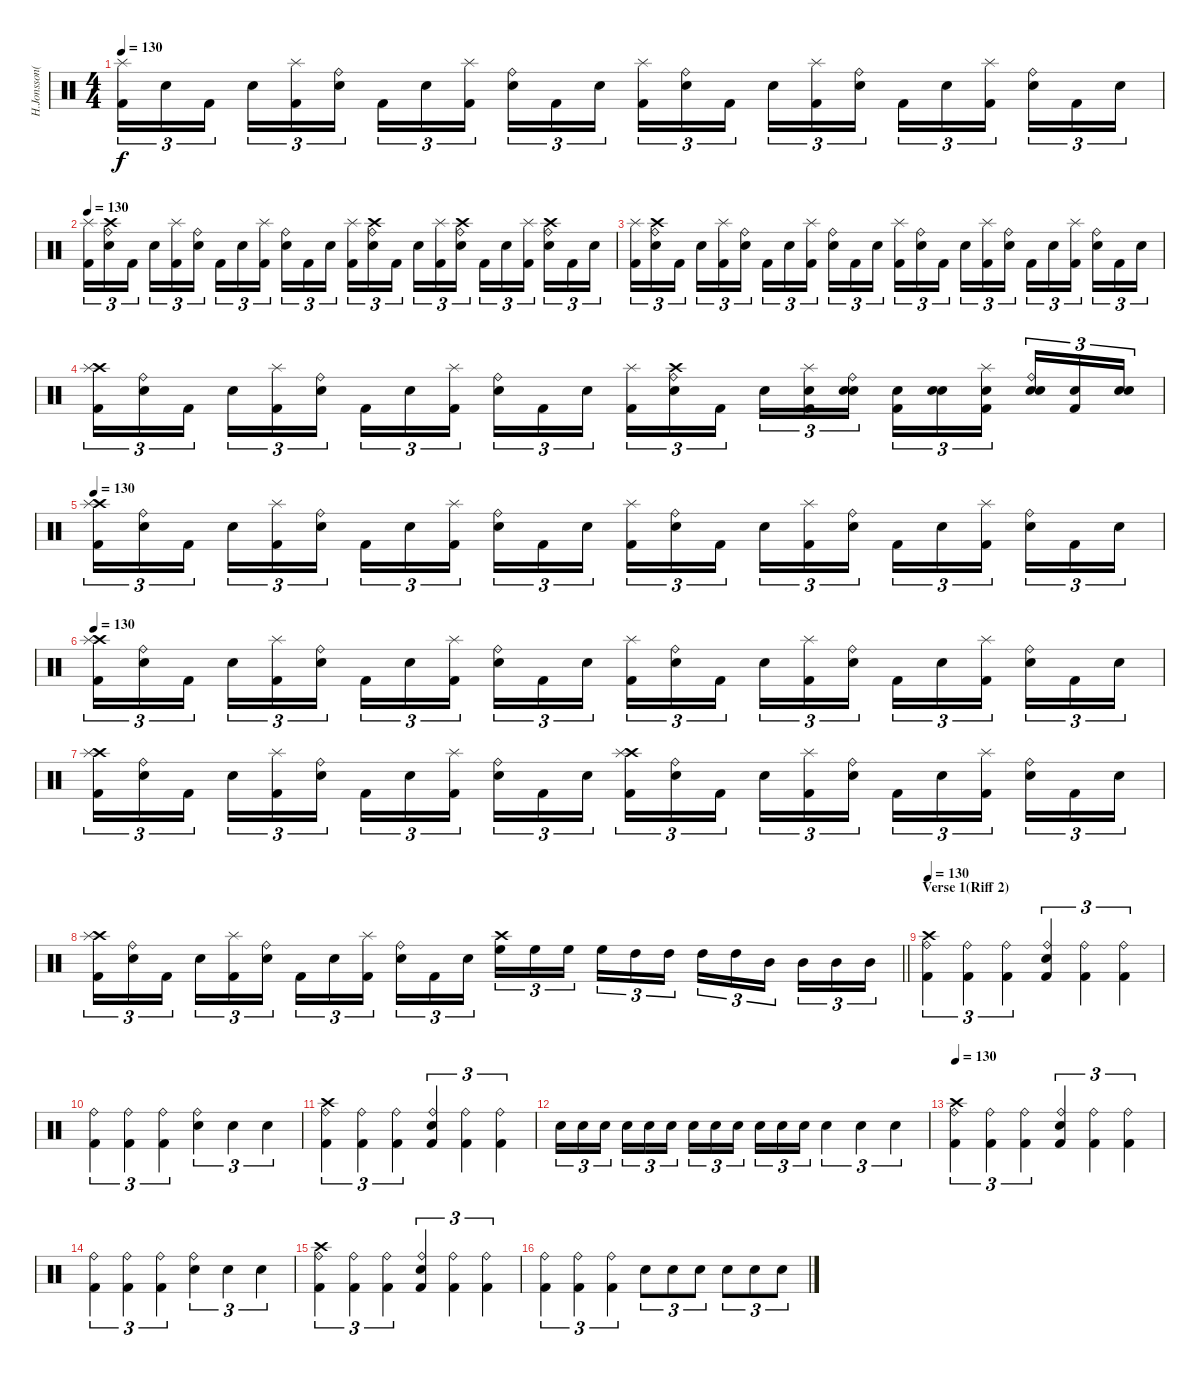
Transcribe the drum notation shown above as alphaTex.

\track ("H.Jonsson(Drums)" "H.Jonsson(") {instrument percussion}
\staff {score}
\articulation defaults
\ts (4 4)
\tempo 130
\clef neutral
\ks c
("Splash (hit)" "Kick (hit) 2").16{tu (3 2) dy f} "Electric Snare (hit)".16{tu (3 2)} "Kick (hit) 2".16{tu (3 2) beam splitsecondary} "Electric Snare (hit)".16{tu (3 2)} ("Splash (hit)" "Kick (hit) 2").16{tu (3 2)} ("Ride (bell)" "Electric Snare (hit)").16{tu (3 2)} "Kick (hit) 2".16{tu (3 2)} "Electric Snare (hit)".16{tu (3 2)} ("Splash (hit)" "Kick (hit) 2").16{tu (3 2) beam splitsecondary} ("Ride (bell)" "Electric Snare (hit)").16{tu (3 2)} "Kick (hit) 2".16{tu (3 2)} "Electric Snare (hit)".16{tu (3 2)} ("Splash (hit)" "Kick (hit) 2").16{tu (3 2)} ("Ride (bell)" "Electric Snare (hit)").16{tu (3 2)} "Kick (hit) 2".16{tu (3 2) beam splitsecondary} "Electric Snare (hit)".16{tu (3 2)} ("Splash (hit)" "Kick (hit) 2").16{tu (3 2)} ("Ride (bell)" "Electric Snare (hit)").16{tu (3 2)} "Kick (hit) 2".16{tu (3 2)} "Electric Snare (hit)".16{tu (3 2)} ("Splash (hit)" "Kick (hit) 2").16{tu (3 2) beam splitsecondary} ("Ride (bell)" "Electric Snare (hit)").16{tu (3 2)} "Kick (hit) 2".16{tu (3 2)} "Electric Snare (hit)".16{tu (3 2)} |
\tempo 130
("Splash (hit)" "Kick (hit) 2").16{tu (3 2)} ("Crash high (hit)" "Ride (bell)" "Electric Snare (hit)").16{tu (3 2)} "Kick (hit) 2".16{tu (3 2) beam splitsecondary} "Electric Snare (hit)".16{tu (3 2)} ("Splash (hit)" "Kick (hit) 2").16{tu (3 2)} ("Ride (bell)" "Electric Snare (hit)").16{tu (3 2)} "Kick (hit) 2".16{tu (3 2)} "Electric Snare (hit)".16{tu (3 2)} ("Splash (hit)" "Kick (hit) 2").16{tu (3 2) beam splitsecondary} ("Ride (bell)" "Electric Snare (hit)").16{tu (3 2)} "Kick (hit) 2".16{tu (3 2)} "Electric Snare (hit)".16{tu (3 2)} ("Splash (hit)" "Kick (hit) 2").16{tu (3 2)} ("Crash high (hit)" "Ride (bell)" "Electric Snare (hit)").16{tu (3 2)} "Kick (hit) 2".16{tu (3 2) beam splitsecondary} "Electric Snare (hit)".16{tu (3 2)} ("Splash (hit)" "Kick (hit) 2").16{tu (3 2)} ("Crash high (hit)" "Ride (bell)" "Electric Snare (hit)").16{tu (3 2)} "Kick (hit) 2".16{tu (3 2)} "Electric Snare (hit)".16{tu (3 2)} ("Splash (hit)" "Kick (hit) 2").16{tu (3 2) beam splitsecondary} ("Crash high (hit)" "Ride (bell)" "Electric Snare (hit)").16{tu (3 2)} "Kick (hit) 2".16{tu (3 2)} "Electric Snare (hit)".16{tu (3 2)} |
("Splash (hit)" "Kick (hit) 2").16{tu (3 2)} ("Crash high (hit)" "Ride (bell)" "Electric Snare (hit)").16{tu (3 2)} "Kick (hit) 2".16{tu (3 2) beam splitsecondary} "Electric Snare (hit)".16{tu (3 2)} ("Splash (hit)" "Kick (hit) 2").16{tu (3 2)} ("Ride (bell)" "Electric Snare (hit)").16{tu (3 2)} "Kick (hit) 2".16{tu (3 2)} "Electric Snare (hit)".16{tu (3 2)} ("Splash (hit)" "Kick (hit) 2").16{tu (3 2) beam splitsecondary} ("Ride (bell)" "Electric Snare (hit)").16{tu (3 2)} "Kick (hit) 2".16{tu (3 2)} "Electric Snare (hit)".16{tu (3 2)} ("Splash (hit)" "Kick (hit) 2").16{tu (3 2)} ("Ride (bell)" "Electric Snare (hit)").16{tu (3 2)} "Kick (hit) 2".16{tu (3 2) beam splitsecondary} "Electric Snare (hit)".16{tu (3 2)} ("Splash (hit)" "Kick (hit) 2").16{tu (3 2)} ("Ride (bell)" "Electric Snare (hit)").16{tu (3 2)} "Kick (hit) 2".16{tu (3 2)} "Electric Snare (hit)".16{tu (3 2)} ("Splash (hit)" "Kick (hit) 2").16{tu (3 2) beam splitsecondary} ("Ride (bell)" "Electric Snare (hit)").16{tu (3 2)} "Kick (hit) 2".16{tu (3 2)} "Electric Snare (hit)".16{tu (3 2)} |
("Crash high (hit)" "Splash (hit)" "Kick (hit) 2").16{tu (3 2)} ("Ride (bell)" "Electric Snare (hit)").16{tu (3 2)} "Kick (hit) 2".16{tu (3 2) beam splitsecondary} "Electric Snare (hit)".16{tu (3 2)} ("Splash (hit)" "Kick (hit) 2").16{tu (3 2)} ("Ride (bell)" "Electric Snare (hit)").16{tu (3 2)} "Kick (hit) 2".16{tu (3 2)} "Electric Snare (hit)".16{tu (3 2)} ("Splash (hit)" "Kick (hit) 2").16{tu (3 2) beam splitsecondary} ("Ride (bell)" "Electric Snare (hit)").16{tu (3 2)} "Kick (hit) 2".16{tu (3 2)} "Electric Snare (hit)".16{tu (3 2)} ("Splash (hit)" "Kick (hit) 2").16{tu (3 2)} ("Crash high (hit)" "Ride (bell)" "Electric Snare (hit)").16{tu (3 2)} "Kick (hit) 2".16{tu (3 2) beam splitsecondary} "Electric Snare (hit)".16{tu (3 2)} ("Snare (hit) 2" "Splash (hit)" "Kick (hit) 2").16{tu (3 2)} ("Snare (hit) 2" "Ride (bell)" "Electric Snare (hit)").16{tu (3 2)} ("Snare (hit) 2" "Kick (hit) 2").16{tu (3 2)} ("Snare (hit) 2" "Electric Snare (hit)").16{tu (3 2)} ("Snare (hit) 2" "Splash (hit)" "Kick (hit) 2").16{tu (3 2) beam splitsecondary} ("Snare (hit) 2" "Ride (bell)" "Electric Snare (hit)").16{tu (3 2)} ("Snare (hit) 2" "Kick (hit) 2").16{tu (3 2)} ("Snare (hit) 2" "Electric Snare (hit)").16{tu (3 2)} |
\tempo 130
("Crash high (hit)" "Splash (hit)" "Kick (hit) 2").16{tu (3 2)} ("Ride (bell)" "Electric Snare (hit)").16{tu (3 2)} "Kick (hit) 2".16{tu (3 2) beam splitsecondary} "Electric Snare (hit)".16{tu (3 2)} ("Splash (hit)" "Kick (hit) 2").16{tu (3 2)} ("Ride (bell)" "Electric Snare (hit)").16{tu (3 2)} "Kick (hit) 2".16{tu (3 2)} "Electric Snare (hit)".16{tu (3 2)} ("Splash (hit)" "Kick (hit) 2").16{tu (3 2) beam splitsecondary} ("Ride (bell)" "Electric Snare (hit)").16{tu (3 2)} "Kick (hit) 2".16{tu (3 2)} "Electric Snare (hit)".16{tu (3 2)} ("Splash (hit)" "Kick (hit) 2").16{tu (3 2)} ("Ride (bell)" "Electric Snare (hit)").16{tu (3 2)} "Kick (hit) 2".16{tu (3 2) beam splitsecondary} "Electric Snare (hit)".16{tu (3 2)} ("Splash (hit)" "Kick (hit) 2").16{tu (3 2)} ("Ride (bell)" "Electric Snare (hit)").16{tu (3 2)} "Kick (hit) 2".16{tu (3 2)} "Electric Snare (hit)".16{tu (3 2)} ("Splash (hit)" "Kick (hit) 2").16{tu (3 2) beam splitsecondary} ("Ride (bell)" "Electric Snare (hit)").16{tu (3 2)} "Kick (hit) 2".16{tu (3 2)} "Electric Snare (hit)".16{tu (3 2)} |
\tempo 130
("Crash high (hit)" "Splash (hit)" "Kick (hit) 2").16{tu (3 2)} ("Ride (bell)" "Electric Snare (hit)").16{tu (3 2)} "Kick (hit) 2".16{tu (3 2) beam splitsecondary} "Electric Snare (hit)".16{tu (3 2)} ("Splash (hit)" "Kick (hit) 2").16{tu (3 2)} ("Ride (bell)" "Electric Snare (hit)").16{tu (3 2)} "Kick (hit) 2".16{tu (3 2)} "Electric Snare (hit)".16{tu (3 2)} ("Splash (hit)" "Kick (hit) 2").16{tu (3 2) beam splitsecondary} ("Ride (bell)" "Electric Snare (hit)").16{tu (3 2)} "Kick (hit) 2".16{tu (3 2)} "Electric Snare (hit)".16{tu (3 2)} ("Splash (hit)" "Kick (hit) 2").16{tu (3 2)} ("Ride (bell)" "Electric Snare (hit)").16{tu (3 2)} "Kick (hit) 2".16{tu (3 2) beam splitsecondary} "Electric Snare (hit)".16{tu (3 2)} ("Splash (hit)" "Kick (hit) 2").16{tu (3 2)} ("Ride (bell)" "Electric Snare (hit)").16{tu (3 2)} "Kick (hit) 2".16{tu (3 2)} "Electric Snare (hit)".16{tu (3 2)} ("Splash (hit)" "Kick (hit) 2").16{tu (3 2) beam splitsecondary} ("Ride (bell)" "Electric Snare (hit)").16{tu (3 2)} "Kick (hit) 2".16{tu (3 2)} "Electric Snare (hit)".16{tu (3 2)} |
("Crash high (hit)" "Splash (hit)" "Kick (hit) 2").16{tu (3 2)} ("Ride (bell)" "Electric Snare (hit)").16{tu (3 2)} "Kick (hit) 2".16{tu (3 2) beam splitsecondary} "Electric Snare (hit)".16{tu (3 2)} ("Splash (hit)" "Kick (hit) 2").16{tu (3 2)} ("Ride (bell)" "Electric Snare (hit)").16{tu (3 2)} "Kick (hit) 2".16{tu (3 2)} "Electric Snare (hit)".16{tu (3 2)} ("Splash (hit)" "Kick (hit) 2").16{tu (3 2) beam splitsecondary} ("Ride (bell)" "Electric Snare (hit)").16{tu (3 2)} "Kick (hit) 2".16{tu (3 2)} "Electric Snare (hit)".16{tu (3 2)} ("Crash high (hit)" "Splash (hit)" "Kick (hit) 2").16{tu (3 2)} ("Ride (bell)" "Electric Snare (hit)").16{tu (3 2)} "Kick (hit) 2".16{tu (3 2) beam splitsecondary} "Electric Snare (hit)".16{tu (3 2)} ("Splash (hit)" "Kick (hit) 2").16{tu (3 2)} ("Ride (bell)" "Electric Snare (hit)").16{tu (3 2)} "Kick (hit) 2".16{tu (3 2)} "Electric Snare (hit)".16{tu (3 2)} ("Splash (hit)" "Kick (hit) 2").16{tu (3 2) beam splitsecondary} ("Ride (bell)" "Electric Snare (hit)").16{tu (3 2)} "Kick (hit) 2".16{tu (3 2)} "Electric Snare (hit)".16{tu (3 2)} |
\barLineRight lightlight
("Crash high (hit)" "Splash (hit)" "Kick (hit) 2").16{tu (3 2)} ("Ride (bell)" "Electric Snare (hit)").16{tu (3 2)} "Kick (hit) 2".16{tu (3 2) beam splitsecondary} "Electric Snare (hit)".16{tu (3 2)} ("Splash (hit)" "Kick (hit) 2").16{tu (3 2)} ("Ride (bell)" "Electric Snare (hit)").16{tu (3 2)} "Kick (hit) 2".16{tu (3 2)} "Electric Snare (hit)".16{tu (3 2)} ("Splash (hit)" "Kick (hit) 2").16{tu (3 2) beam splitsecondary} ("Ride (bell)" "Electric Snare (hit)").16{tu (3 2)} "Kick (hit) 2".16{tu (3 2)} "Electric Snare (hit)".16{tu (3 2)} ("Crash high (hit)" "High Floor Tom (hit)").16{tu (3 2)} "High Floor Tom (hit)".16{tu (3 2)} "High Floor Tom (hit)".16{tu (3 2) beam splitsecondary} "High Floor Tom (hit)".16{tu (3 2)} "High Tom (hit)".16{tu (3 2)} "High Tom (hit)".16{tu (3 2)} "High Tom (hit)".16{tu (3 2)} "High Tom (hit)".16{tu (3 2)} "Mid Tom (hit)".16{tu (3 2) beam splitsecondary} "Mid Tom (hit)".16{tu (3 2)} "Mid Tom (hit)".16{tu (3 2)} "Mid Tom (hit)".16{tu (3 2)} |
\section ("" "Verse 1(Riff 2)")
\tempo 130
("Crash high (hit)" "Kick (hit) 2" "Ride (bell)").4{tu (3 2)} ("Kick (hit) 2" "Ride (bell)").4{tu (3 2)} ("Kick (hit) 2" "Ride (bell)").4{tu (3 2)} ("Kick (hit) 2" "Snare (hit) 2" "Ride (bell)").4{tu (3 2)} ("Kick (hit) 2" "Ride (bell)").4{tu (3 2)} ("Kick (hit) 2" "Ride (bell)").4{tu (3 2)} |
("Kick (hit) 2" "Ride (bell)").4{tu (3 2)} ("Kick (hit) 2" "Ride (bell)").4{tu (3 2)} ("Kick (hit) 2" "Ride (bell)").4{tu (3 2)} ("Snare (hit) 2" "Ride (bell)").4{tu (3 2)} "Snare (hit) 2".4{tu (3 2)} "Snare (hit) 2".4{tu (3 2)} |
("Crash high (hit)" "Kick (hit) 2" "Ride (bell)").4{tu (3 2)} ("Kick (hit) 2" "Ride (bell)").4{tu (3 2)} ("Kick (hit) 2" "Ride (bell)").4{tu (3 2)} ("Kick (hit) 2" "Snare (hit) 2" "Ride (bell)").4{tu (3 2)} ("Kick (hit) 2" "Ride (bell)").4{tu (3 2)} ("Kick (hit) 2" "Ride (bell)").4{tu (3 2)} |
"Snare (hit) 2".16{tu (3 2)} "Snare (hit) 2".16{tu (3 2)} "Snare (hit) 2".16{tu (3 2) beam splitsecondary} "Snare (hit) 2".16{tu (3 2)} "Snare (hit) 2".16{tu (3 2)} "Snare (hit) 2".16{tu (3 2)} "Snare (hit) 2".16{tu (3 2)} "Snare (hit) 2".16{tu (3 2)} "Snare (hit) 2".16{tu (3 2) beam splitsecondary} "Snare (hit) 2".16{tu (3 2)} "Snare (hit) 2".16{tu (3 2)} "Snare (hit) 2".16{tu (3 2)} "Electric Snare (hit)".4{tu (3 2)} "Electric Snare (hit)".4{tu (3 2)} "Electric Snare (hit)".4{tu (3 2)} |
\tempo 130
("Crash high (hit)" "Kick (hit) 2" "Ride (bell)").4{tu (3 2)} ("Kick (hit) 2" "Ride (bell)").4{tu (3 2)} ("Kick (hit) 2" "Ride (bell)").4{tu (3 2)} ("Kick (hit) 2" "Snare (hit) 2" "Ride (bell)").4{tu (3 2)} ("Kick (hit) 2" "Ride (bell)").4{tu (3 2)} ("Kick (hit) 2" "Ride (bell)").4{tu (3 2)} |
("Kick (hit) 2" "Ride (bell)").4{tu (3 2)} ("Kick (hit) 2" "Ride (bell)").4{tu (3 2)} ("Kick (hit) 2" "Ride (bell)").4{tu (3 2)} ("Snare (hit) 2" "Ride (bell)").4{tu (3 2)} "Snare (hit) 2".4{tu (3 2)} "Snare (hit) 2".4{tu (3 2)} |
("Crash high (hit)" "Kick (hit) 2" "Ride (bell)").4{tu (3 2)} ("Kick (hit) 2" "Ride (bell)").4{tu (3 2)} ("Kick (hit) 2" "Ride (bell)").4{tu (3 2)} ("Kick (hit) 2" "Snare (hit) 2" "Ride (bell)").4{tu (3 2)} ("Kick (hit) 2" "Ride (bell)").4{tu (3 2)} ("Kick (hit) 2" "Ride (bell)").4{tu (3 2)} |
("Kick (hit) 2" "Ride (bell)").4{tu (3 2)} ("Kick (hit) 2" "Ride (bell)").4{tu (3 2)} ("Kick (hit) 2" "Ride (bell)").4{tu (3 2)} "Snare (hit) 2".8{tu (3 2)} "Snare (hit) 2".8{tu (3 2)} "Snare (hit) 2".8{tu (3 2)} "Snare (hit) 2".8{tu (3 2)} "Snare (hit) 2".8{tu (3 2)} "Snare (hit) 2".8{tu (3 2)}
